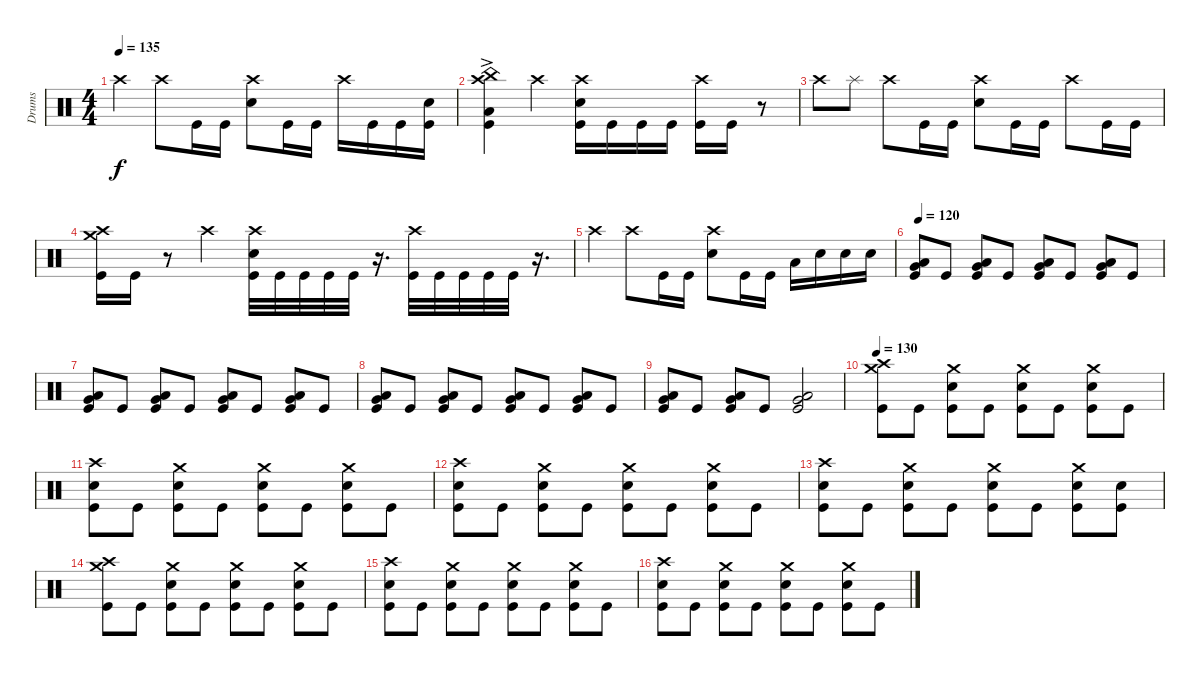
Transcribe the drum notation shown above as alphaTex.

\track ("Drums" "Drums") {instrument percussion}
\staff {score}
\articulation defaults
\ts (4 4)
\tempo 135
\clef neutral
\ks c "Crash high (hit)".4{dy f} "Crash high (hit)".8 "Kick (hit)".16 "Kick (hit)".16
("Crash high (hit)" "Snare (hit) 2").8 "Kick (hit)".16 "Kick (hit)".16 "Crash high (hit)".16 "Kick (hit)".16 "Kick (hit)".16 ("Snare (hit) 2" "Kick (hit)").16 |
("Crash high (hit)" "China (hit)" "Low Floor Tom (hit)"{ac} "Kick (hit)"{ac}).4 "Crash high (hit)".4 ("Crash high (hit)" "Snare (hit) 2" "Kick (hit)").16 "Kick (hit)".16 "Kick (hit)".16 "Kick (hit)".16 ("Crash high (hit)" "Kick (hit)").16 "Kick (hit)".16 r.8 |
"Crash high (hit)".8 "Splash (hit)".8 "Crash high (hit)".8 "Kick (hit)".16 "Kick (hit)".16 ("Crash high (hit)" "Snare (hit) 2").8 "Kick (hit)".16 "Kick (hit)".16 "Crash high (hit)".8 "Kick (hit)".16 "Kick (hit)".16 |
("Crash high (hit)" "Crash medium (hit)" "Kick (hit)").16 "Kick (hit)".16 r.8 "Crash high (hit)".4 ("Crash high (hit)" "Snare (hit) 2" "Kick (hit)").32 "Kick (hit)".32 "Kick (hit)".32 "Kick (hit)".32 "Kick (hit)".32 r.16{d} ("Crash high (hit)" "Kick (hit)").32 "Kick (hit)".32 "Kick (hit)".32 "Kick (hit)".32 "Kick (hit)".32 r.16{d} |
"Crash high (hit)".4 "Crash high (hit)".8 "Kick (hit)".16 "Kick (hit)".16 ("Crash high (hit)" "Snare (hit) 2").8 "Kick (hit)".16 "Kick (hit)".16 "Low Tom (hit)".16 "Snare (hit) 2".16 "Snare (hit) 2".16 "Snare (hit) 2".16 |
\tempo 120
("Low Tom (hit)" "Very Low Tom (hit)" "Kick (hit)").8 "Kick (hit)".8 ("Low Tom (hit)" "Very Low Tom (hit)" "Kick (hit)").8 "Kick (hit)".8 ("Low Tom (hit)" "Very Low Tom (hit)" "Kick (hit)").8 "Kick (hit)".8 ("Low Tom (hit)" "Very Low Tom (hit)" "Kick (hit)").8 "Kick (hit)".8 |
("Low Tom (hit)" "Very Low Tom (hit)" "Kick (hit)").8 "Kick (hit)".8 ("Low Tom (hit)" "Very Low Tom (hit)" "Kick (hit)").8 "Kick (hit)".8 ("Low Tom (hit)" "Very Low Tom (hit)" "Kick (hit)").8 "Kick (hit)".8 ("Low Tom (hit)" "Very Low Tom (hit)" "Kick (hit)").8 "Kick (hit)".8 |
("Low Tom (hit)" "Very Low Tom (hit)" "Kick (hit)").8 "Kick (hit)".8 ("Low Tom (hit)" "Very Low Tom (hit)" "Kick (hit)").8 "Kick (hit)".8 ("Low Tom (hit)" "Very Low Tom (hit)" "Kick (hit)").8 "Kick (hit)".8 ("Low Tom (hit)" "Very Low Tom (hit)" "Kick (hit)").8 "Kick (hit)".8 |
("Low Tom (hit)" "Very Low Tom (hit)" "Kick (hit)").8 "Kick (hit)".8 ("Low Tom (hit)" "Very Low Tom (hit)" "Kick (hit)").8 "Kick (hit)".8 ("Low Floor Tom (hit)" "Very Low Tom (hit)" "Kick (hit)").2 |
\tempo 130
("Crash high (hit)" "Crash medium (hit)" "Kick (hit)").8 "Kick (hit)".8 ("Crash medium (hit)" "Snare (hit) 2" "Kick (hit)").8 "Kick (hit)".8 ("Crash medium (hit)" "Snare (hit) 2" "Kick (hit)").8 "Kick (hit)".8 ("Crash medium (hit)" "Snare (hit) 2" "Kick (hit)").8 "Kick (hit)".8 |
("Crash high (hit)" "Snare (hit) 2" "Kick (hit)").8 "Kick (hit)".8 ("Crash medium (hit)" "Snare (hit) 2" "Kick (hit)").8 "Kick (hit)".8 ("Crash medium (hit)" "Snare (hit) 2" "Kick (hit)").8 "Kick (hit)".8 ("Crash medium (hit)" "Snare (hit) 2" "Kick (hit)").8 "Kick (hit)".8 |
("Crash high (hit)" "Snare (hit) 2" "Kick (hit)").8 "Kick (hit)".8 ("Crash medium (hit)" "Snare (hit) 2" "Kick (hit)").8 "Kick (hit)".8 ("Crash medium (hit)" "Snare (hit) 2" "Kick (hit)").8 "Kick (hit)".8 ("Crash medium (hit)" "Snare (hit) 2" "Kick (hit)").8 "Kick (hit)".8 |
("Crash high (hit)" "Snare (hit) 2" "Kick (hit)").8 "Kick (hit)".8 ("Crash medium (hit)" "Snare (hit) 2" "Kick (hit)").8 "Kick (hit)".8 ("Crash medium (hit)" "Snare (hit) 2" "Kick (hit)").8 "Kick (hit)".8 ("Crash medium (hit)" "Snare (hit) 2" "Kick (hit)").8 ("Snare (hit) 2" "Kick (hit)").8 |
("Crash high (hit)" "Crash medium (hit)" "Kick (hit)").8 "Kick (hit)".8 ("Crash medium (hit)" "Snare (hit) 2" "Kick (hit)").8 "Kick (hit)".8 ("Crash medium (hit)" "Snare (hit) 2" "Kick (hit)").8 "Kick (hit)".8 ("Crash medium (hit)" "Snare (hit) 2" "Kick (hit)").8 "Kick (hit)".8 |
("Crash high (hit)" "Snare (hit) 2" "Kick (hit)").8 "Kick (hit)".8 ("Crash medium (hit)" "Snare (hit) 2" "Kick (hit)").8 "Kick (hit)".8 ("Crash medium (hit)" "Snare (hit) 2" "Kick (hit)").8 "Kick (hit)".8 ("Crash medium (hit)" "Snare (hit) 2" "Kick (hit)").8 "Kick (hit)".8 |
("Crash high (hit)" "Snare (hit) 2" "Kick (hit)").8 "Kick (hit)".8 ("Crash medium (hit)" "Snare (hit) 2" "Kick (hit)").8 "Kick (hit)".8 ("Crash medium (hit)" "Snare (hit) 2" "Kick (hit)").8 "Kick (hit)".8 ("Crash medium (hit)" "Snare (hit) 2" "Kick (hit)").8 "Kick (hit)".8
